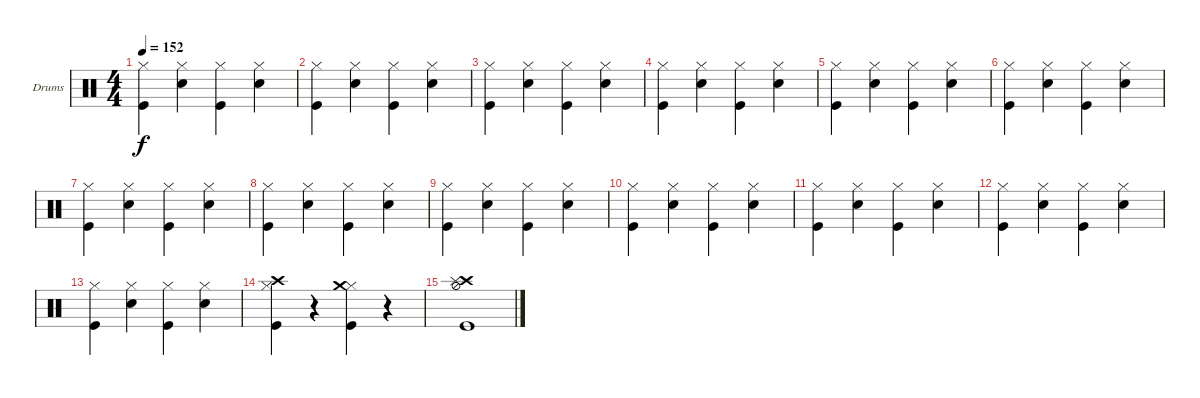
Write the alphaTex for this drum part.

\bracketExtendMode groupsimilarinstruments
\firstSystemTrackNameOrientation horizontal
\otherSystemsTrackNameOrientation horizontal
\track ("Drumkit" "Drums") {instrument percussion}
\staff {score}
\articulation defaults
\ts (4 4)
\tempo 152
\clef neutral
\scale
0.333333
\ks c
("Hi-Hat (closed)" "Kick (hit)").4{dy f} ("Snare (hit) 2" "Hi-Hat (closed)").4 ("Kick (hit)" "Hi-Hat (closed)").4 ("Snare (hit) 2" "Hi-Hat (closed)").4 |
\scale
0.333333 ("Hi-Hat (closed)" "Kick (hit)").4 ("Snare (hit) 2" "Hi-Hat (closed)").4 ("Kick (hit)" "Hi-Hat (closed)").4 ("Snare (hit) 2" "Hi-Hat (closed)").4 |
\scale
0.333333 ("Hi-Hat (closed)" "Kick (hit)").4 ("Snare (hit) 2" "Hi-Hat (closed)").4 ("Kick (hit)" "Hi-Hat (closed)").4 ("Snare (hit) 2" "Hi-Hat (closed)").4 |
\scale
0.333333 ("Hi-Hat (closed)" "Kick (hit)").4 ("Snare (hit) 2" "Hi-Hat (closed)").4 ("Kick (hit)" "Hi-Hat (closed)").4 ("Snare (hit) 2" "Hi-Hat (closed)").4 |
\scale
0.333333 ("Hi-Hat (closed)" "Kick (hit)").4 ("Snare (hit) 2" "Hi-Hat (closed)").4 ("Kick (hit)" "Hi-Hat (closed)").4 ("Snare (hit) 2" "Hi-Hat (closed)").4 |
\scale
0.333333 ("Hi-Hat (closed)" "Kick (hit)").4 ("Snare (hit) 2" "Hi-Hat (closed)").4 ("Kick (hit)" "Hi-Hat (closed)").4 ("Snare (hit) 2" "Hi-Hat (closed)").4 |
\scale
0.333333 ("Hi-Hat (closed)" "Kick (hit)").4 ("Snare (hit) 2" "Hi-Hat (closed)").4 ("Kick (hit)" "Hi-Hat (closed)").4 ("Snare (hit) 2" "Hi-Hat (closed)").4 |
\scale
0.333333 ("Hi-Hat (closed)" "Kick (hit)").4 ("Snare (hit) 2" "Hi-Hat (closed)").4 ("Kick (hit)" "Hi-Hat (closed)").4 ("Snare (hit) 2" "Hi-Hat (closed)").4 |
\scale
0.333333 ("Hi-Hat (closed)" "Kick (hit)").4 ("Snare (hit) 2" "Hi-Hat (closed)").4 ("Kick (hit)" "Hi-Hat (closed)").4 ("Snare (hit) 2" "Hi-Hat (closed)").4 |
\scale
0.333333 ("Hi-Hat (closed)" "Kick (hit)").4 ("Snare (hit) 2" "Hi-Hat (closed)").4 ("Kick (hit)" "Hi-Hat (closed)").4 ("Snare (hit) 2" "Hi-Hat (closed)").4 |
\scale
0.333333 ("Hi-Hat (closed)" "Kick (hit)").4 ("Snare (hit) 2" "Hi-Hat (closed)").4 ("Kick (hit)" "Hi-Hat (closed)").4 ("Snare (hit) 2" "Hi-Hat (closed)").4 |
\scale
0.333333 ("Hi-Hat (closed)" "Kick (hit)").4 ("Snare (hit) 2" "Hi-Hat (closed)").4 ("Kick (hit)" "Hi-Hat (closed)").4 ("Snare (hit) 2" "Hi-Hat (closed)").4 |
\scale
0.333333 ("Hi-Hat (closed)" "Kick (hit)").4 ("Snare (hit) 2" "Hi-Hat (closed)").4 ("Kick (hit)" "Hi-Hat (closed)").4 ("Snare (hit) 2" "Hi-Hat (closed)").4 |
\scale
0.333333 ("Hi-Hat (closed)" "Kick (hit)" "Crash high (hit)").4 r.4 ("Kick (hit)" "Hi-Hat (closed)" "Crash medium (hit)").4 r.4 |
("Hi-Hat (half)" "Crash high (hit)" "Splash (hit)" "Kick (hit)").1
